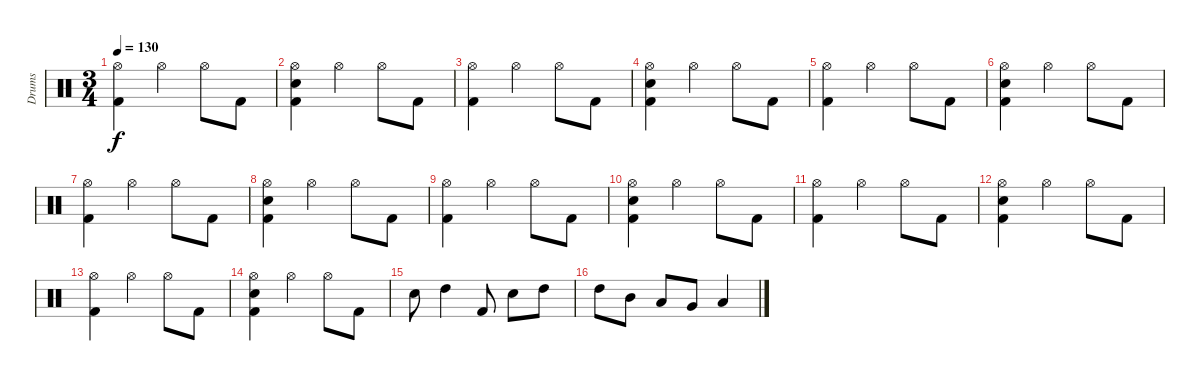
\track ("Drums" "Drums") {instrument percussion}
\staff {score}
\articulation defaults
\ts (3 4)
\tempo 130
\clef neutral
\ks c
("Hi-Hat (open)" "Kick (hit) 2").4{dy f} "Hi-Hat (open)".4 "Hi-Hat (open)".8 "Kick (hit) 2".8 |
("Hi-Hat (open)" "Electric Snare (hit)" "Kick (hit) 2").4 "Hi-Hat (open)".4 "Hi-Hat (open)".8 "Kick (hit) 2".8 |
("Hi-Hat (open)" "Kick (hit) 2").4 "Hi-Hat (open)".4 "Hi-Hat (open)".8 "Kick (hit) 2".8 |
("Hi-Hat (open)" "Electric Snare (hit)" "Kick (hit) 2").4 "Hi-Hat (open)".4 "Hi-Hat (open)".8 "Kick (hit) 2".8 |
("Hi-Hat (open)" "Kick (hit) 2").4 "Hi-Hat (open)".4 "Hi-Hat (open)".8 "Kick (hit) 2".8 |
("Hi-Hat (open)" "Electric Snare (hit)" "Kick (hit) 2").4 "Hi-Hat (open)".4 "Hi-Hat (open)".8 "Kick (hit) 2".8 |
("Hi-Hat (open)" "Kick (hit) 2").4 "Hi-Hat (open)".4 "Hi-Hat (open)".8 "Kick (hit) 2".8 |
("Hi-Hat (open)" "Electric Snare (hit)" "Kick (hit) 2").4 "Hi-Hat (open)".4 "Hi-Hat (open)".8 "Kick (hit) 2".8 |
("Hi-Hat (open)" "Kick (hit) 2").4 "Hi-Hat (open)".4 "Hi-Hat (open)".8 "Kick (hit) 2".8 |
("Hi-Hat (open)" "Electric Snare (hit)" "Kick (hit) 2").4 "Hi-Hat (open)".4 "Hi-Hat (open)".8 "Kick (hit) 2".8 |
("Hi-Hat (open)" "Kick (hit) 2").4 "Hi-Hat (open)".4 "Hi-Hat (open)".8 "Kick (hit) 2".8 |
("Hi-Hat (open)" "Electric Snare (hit)" "Kick (hit) 2").4 "Hi-Hat (open)".4 "Hi-Hat (open)".8 "Kick (hit) 2".8 |
("Hi-Hat (open)" "Kick (hit) 2").4 "Hi-Hat (open)".4 "Hi-Hat (open)".8 "Kick (hit) 2".8 |
("Hi-Hat (open)" "Electric Snare (hit)" "Kick (hit) 2").4 "Hi-Hat (open)".4 "Hi-Hat (open)".8 "Kick (hit) 2".8 |
"Electric Snare (hit)".8 "High Tom (hit)".4 "Kick (hit) 2".8 "Electric Snare (hit)".8 "High Tom (hit)".8 |
"High Tom (hit)".8 "Mid Tom (hit)".8 "Low Tom (hit)".8 "Very Low Tom (hit)".8 "Low Floor Tom (hit)".4
